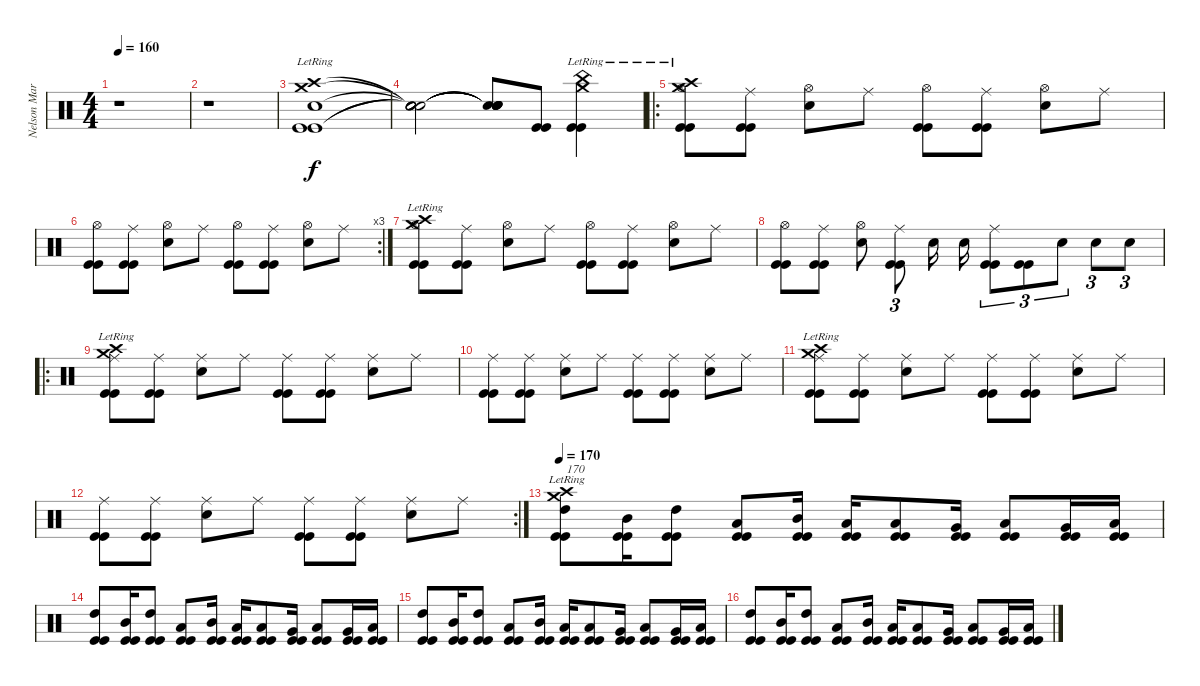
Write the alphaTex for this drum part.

\track ("Nelson Maria" "Nelson Mar") {instrument percussion}
\staff {score}
\articulation defaults
\ts (4 4)
\tempo 160
\clef neutral
\ks c
r.1{dy f} |
r.1 |
("Crash high (hit)"{lr} "Crash medium (hit)"{lr} "Snare (hit) 2" "Kick (hit)" "Kick (hit)").1 |
("Snare (hit)"{t} "Snare (hit)"{t} "Snare (hit)"{t} "Snare (hit)"{t} "Snare (hit)"{t}).2 ("Snare (hit)"{t} "Snare (hit)"{t} "Snare (hit)"{t} "Snare (hit)"{t} "Snare (hit)"{t}).8 ("Kick (hit)" "Kick (hit)").8 ("Crash medium (hit)"{lr} "China (hit)"{lr} "Kick (hit)" "Kick (hit)").4 |
\ro
("Crash high (hit)"{lr} "Crash medium (hit)"{lr} "Hi-Hat (open)" "Kick (hit)" "Kick (hit)").8 ("Ride (middle)" "Kick (hit)" "Kick (hit)").8 ("Snare (hit) 2" "Hi-Hat (open)").8 "Ride (middle)".8 ("Hi-Hat (open)" "Kick (hit)" "Kick (hit)").8 ("Ride (middle)" "Kick (hit)" "Kick (hit)").8 ("Snare (hit) 2" "Hi-Hat (open)").8 "Ride (middle)".8 |
\rc 3
("Hi-Hat (open)" "Kick (hit)" "Kick (hit)").8 ("Ride (middle)" "Kick (hit)" "Kick (hit)").8 ("Snare (hit) 2" "Hi-Hat (open)").8 "Ride (middle)".8 ("Hi-Hat (open)" "Kick (hit)" "Kick (hit)").8 ("Ride (middle)" "Kick (hit)" "Kick (hit)").8 ("Snare (hit) 2" "Hi-Hat (open)").8 "Ride (middle)".8 |
("Crash high (hit)"{lr} "Crash medium (hit)"{lr} "Hi-Hat (open)" "Kick (hit)" "Kick (hit)").8 ("Ride (middle)" "Kick (hit)" "Kick (hit)").8 ("Snare (hit) 2" "Hi-Hat (open)").8 "Ride (middle)".8 ("Hi-Hat (open)" "Kick (hit)" "Kick (hit)").8 ("Ride (middle)" "Kick (hit)" "Kick (hit)").8 ("Snare (hit) 2" "Hi-Hat (open)").8 "Ride (middle)".8 |
("Hi-Hat (open)" "Kick (hit)" "Kick (hit)").8 ("Ride (middle)" "Kick (hit)" "Kick (hit)").8 ("Snare (hit) 2" "Hi-Hat (open)").8 ("Ride (middle)" "Kick (hit)" "Kick (hit)").8{tu (3 2)} "Snare (hit) 2".16 "Snare (hit) 2".16 ("Ride (middle)" "Kick (hit)" "Kick (hit)").8{tu (3 2)} ("Kick (hit)" "Kick (hit)").8{tu (3 2)} "Snare (hit) 2".8{tu (3 2)} "Snare (hit) 2".8{tu (3 2)} "Snare (hit) 2".8{tu (3 2)} |
\ro
("Crash high (hit)"{lr} "Crash medium (hit)"{lr} "Ride (middle)" "Kick (hit)" "Kick (hit)").8 ("Ride (middle)" "Kick (hit)" "Kick (hit)").8 ("Snare (hit) 2" "Ride (middle)").8 "Ride (middle)".8 ("Ride (middle)" "Kick (hit)" "Kick (hit)").8 ("Ride (middle)" "Kick (hit)" "Kick (hit)").8 ("Snare (hit) 2" "Ride (middle)").8 "Ride (middle)".8 |
("Ride (middle)" "Kick (hit)" "Kick (hit)").8 ("Ride (middle)" "Kick (hit)" "Kick (hit)").8 ("Snare (hit) 2" "Ride (middle)").8 "Ride (middle)".8 ("Ride (middle)" "Kick (hit)" "Kick (hit)").8 ("Ride (middle)" "Kick (hit)" "Kick (hit)").8 ("Snare (hit) 2" "Ride (middle)").8 "Ride (middle)".8 |
("Crash high (hit)"{lr} "Crash medium (hit)"{lr} "Ride (middle)" "Kick (hit)" "Kick (hit)").8 ("Ride (middle)" "Kick (hit)" "Kick (hit)").8 ("Snare (hit) 2" "Ride (middle)").8 "Ride (middle)".8 ("Ride (middle)" "Kick (hit)" "Kick (hit)").8 ("Ride (middle)" "Kick (hit)" "Kick (hit)").8 ("Snare (hit) 2" "Ride (middle)").8 "Ride (middle)".8 |
\rc 2
("Ride (middle)" "Kick (hit)" "Kick (hit)").8 ("Ride (middle)" "Kick (hit)" "Kick (hit)").8 ("Snare (hit) 2" "Ride (middle)").8 "Ride (middle)".8 ("Ride (middle)" "Kick (hit)" "Kick (hit)").8 ("Ride (middle)" "Kick (hit)" "Kick (hit)").8 ("Snare (hit) 2" "Ride (middle)").8 "Ride (middle)".8 |
\tempo 170
("Crash high (hit)"{lr} "Crash medium (hit)"{lr} "High Tom (hit)" "Kick (hit)" "Kick (hit)").8{txt "170"} ("Mid Tom (hit)" "Kick (hit)" "Kick (hit)").16 ("High Tom (hit)" "Kick (hit)" "Kick (hit)").8 ("Low Tom (hit)" "Kick (hit)" "Kick (hit)").8 ("Mid Tom (hit)" "Kick (hit)" "Kick (hit)").16 ("Low Tom (hit)" "Kick (hit)" "Kick (hit)").16 ("Low Tom (hit)" "Kick (hit)" "Kick (hit)").8 ("Very Low Tom (hit)" "Kick (hit)" "Kick (hit)").16 ("Low Floor Tom (hit)" "Kick (hit)" "Kick (hit)").8 ("Very Low Tom (hit)" "Kick (hit)" "Kick (hit)").16 ("Low Floor Tom (hit)" "Kick (hit)" "Kick (hit)").16 |
("High Tom (hit)" "Kick (hit)" "Kick (hit)").8 ("Mid Tom (hit)" "Kick (hit)" "Kick (hit)").16 ("High Tom (hit)" "Kick (hit)" "Kick (hit)").8 ("Low Tom (hit)" "Kick (hit)" "Kick (hit)").8 ("Mid Tom (hit)" "Kick (hit)" "Kick (hit)").16 ("Low Tom (hit)" "Kick (hit)" "Kick (hit)").16 ("Low Tom (hit)" "Kick (hit)" "Kick (hit)").8 ("Very Low Tom (hit)" "Kick (hit)" "Kick (hit)").16 ("Low Floor Tom (hit)" "Kick (hit)" "Kick (hit)").8 ("Very Low Tom (hit)" "Kick (hit)" "Kick (hit)").16 ("Low Floor Tom (hit)" "Kick (hit)" "Kick (hit)").16 |
("High Tom (hit)" "Kick (hit)" "Kick (hit)").8 ("Mid Tom (hit)" "Kick (hit)" "Kick (hit)").16 ("High Tom (hit)" "Kick (hit)" "Kick (hit)").8 ("Low Tom (hit)" "Kick (hit)" "Kick (hit)").8 ("Mid Tom (hit)" "Kick (hit)" "Kick (hit)").16 ("Low Tom (hit)" "Kick (hit)" "Kick (hit)").16 ("Low Tom (hit)" "Kick (hit)" "Kick (hit)").8 ("Very Low Tom (hit)" "Kick (hit)" "Kick (hit)").16 ("Low Floor Tom (hit)" "Kick (hit)" "Kick (hit)").8 ("Very Low Tom (hit)" "Kick (hit)" "Kick (hit)").16 ("Low Floor Tom (hit)" "Kick (hit)" "Kick (hit)").16 |
("High Tom (hit)" "Kick (hit)" "Kick (hit)").8 ("Mid Tom (hit)" "Kick (hit)" "Kick (hit)").16 ("High Tom (hit)" "Kick (hit)" "Kick (hit)").8 ("Low Tom (hit)" "Kick (hit)" "Kick (hit)").8 ("Mid Tom (hit)" "Kick (hit)" "Kick (hit)").16 ("Low Tom (hit)" "Kick (hit)" "Kick (hit)").16 ("Low Tom (hit)" "Kick (hit)" "Kick (hit)").8 ("Very Low Tom (hit)" "Kick (hit)" "Kick (hit)").16 ("Low Floor Tom (hit)" "Kick (hit)" "Kick (hit)").8 ("Very Low Tom (hit)" "Kick (hit)" "Kick (hit)").16 ("Low Floor Tom (hit)" "Kick (hit)" "Kick (hit)").16
